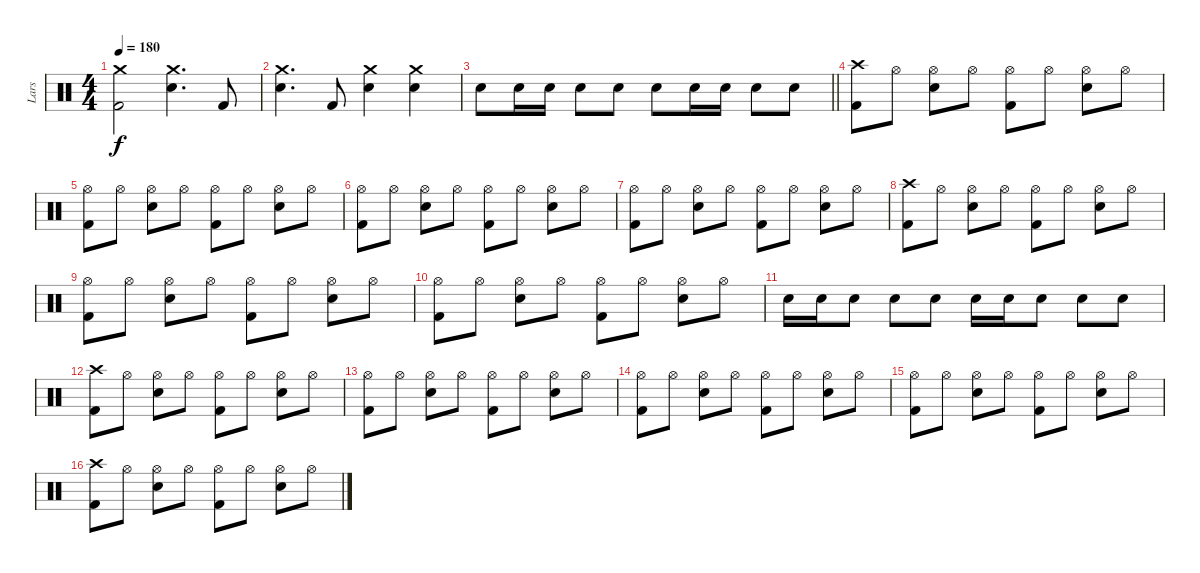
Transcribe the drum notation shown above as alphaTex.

\track ("Lars" "Lars") {instrument percussion}
\staff {score}
\articulation defaults
\ts (4 4)
\tempo 180
\clef neutral
\ks c
("Crash medium (hit)" "Kick (hit) 2").2{dy f} ("Crash medium (hit)" "Snare (hit) 2").4{d} "Kick (hit) 2".8 |
("Crash medium (hit)" "Snare (hit) 2").4{d} "Kick (hit) 2".8 ("Crash medium (hit)" "Snare (hit) 2").4 ("Crash medium (hit)" "Snare (hit) 2").4 |
\barLineRight lightlight "Snare (hit) 2".8 "Snare (hit) 2".16 "Snare (hit) 2".16 "Snare (hit) 2".8 "Snare (hit) 2".8 "Snare (hit) 2".8 "Snare (hit) 2".16 "Snare (hit) 2".16 "Snare (hit) 2".8 "Snare (hit) 2".8
|
\section ("" "")
("Crash high (hit)" "Kick (hit) 2").8 "Hi-Hat (open)".8 ("Hi-Hat (open)" "Snare (hit) 2").8 "Hi-Hat (open)".8 ("Hi-Hat (open)" "Kick (hit) 2").8 "Hi-Hat (open)".8 ("Hi-Hat (open)" "Snare (hit) 2").8 "Hi-Hat (open)".8 |
("Hi-Hat (open)" "Kick (hit) 2").8 "Hi-Hat (open)".8 ("Hi-Hat (open)" "Snare (hit) 2").8 "Hi-Hat (open)".8 ("Hi-Hat (open)" "Kick (hit) 2").8 "Hi-Hat (open)".8 ("Hi-Hat (open)" "Snare (hit) 2").8 "Hi-Hat (open)".8 |
("Hi-Hat (open)" "Kick (hit) 2").8 "Hi-Hat (open)".8 ("Hi-Hat (open)" "Snare (hit) 2").8 "Hi-Hat (open)".8 ("Hi-Hat (open)" "Kick (hit) 2").8 "Hi-Hat (open)".8 ("Hi-Hat (open)" "Snare (hit) 2").8 "Hi-Hat (open)".8 |
("Hi-Hat (open)" "Kick (hit) 2").8 "Hi-Hat (open)".8 ("Hi-Hat (open)" "Snare (hit) 2").8 "Hi-Hat (open)".8 ("Hi-Hat (open)" "Kick (hit) 2").8 "Hi-Hat (open)".8 ("Hi-Hat (open)" "Snare (hit) 2").8 "Hi-Hat (open)".8 |
("Crash high (hit)" "Kick (hit) 2").8 "Hi-Hat (open)".8 ("Hi-Hat (open)" "Snare (hit) 2").8 "Hi-Hat (open)".8 ("Hi-Hat (open)" "Kick (hit) 2").8 "Hi-Hat (open)".8 ("Hi-Hat (open)" "Snare (hit) 2").8 "Hi-Hat (open)".8 |
("Hi-Hat (open)" "Kick (hit) 2").8 "Hi-Hat (open)".8 ("Hi-Hat (open)" "Snare (hit) 2").8 "Hi-Hat (open)".8 ("Hi-Hat (open)" "Kick (hit) 2").8 "Hi-Hat (open)".8 ("Hi-Hat (open)" "Snare (hit) 2").8 "Hi-Hat (open)".8 |
("Hi-Hat (open)" "Kick (hit) 2").8 "Hi-Hat (open)".8 ("Hi-Hat (open)" "Snare (hit) 2").8 "Hi-Hat (open)".8 ("Hi-Hat (open)" "Kick (hit) 2").8 "Hi-Hat (open)".8 ("Hi-Hat (open)" "Snare (hit) 2").8 "Hi-Hat (open)".8 |
"Snare (hit) 2".16 "Snare (hit) 2".16 "Snare (hit) 2".8 "Snare (hit) 2".8 "Snare (hit) 2".8 "Snare (hit) 2".16 "Snare (hit) 2".16 "Snare (hit) 2".8 "Snare (hit) 2".8 "Snare (hit) 2".8 |
("Crash high (hit)" "Kick (hit) 2").8 "Hi-Hat (open)".8 ("Hi-Hat (open)" "Snare (hit) 2").8 "Hi-Hat (open)".8 ("Hi-Hat (open)" "Kick (hit) 2").8 "Hi-Hat (open)".8 ("Hi-Hat (open)" "Snare (hit) 2").8 "Hi-Hat (open)".8 |
("Hi-Hat (open)" "Kick (hit) 2").8 "Hi-Hat (open)".8 ("Hi-Hat (open)" "Snare (hit) 2").8 "Hi-Hat (open)".8 ("Hi-Hat (open)" "Kick (hit) 2").8 "Hi-Hat (open)".8 ("Hi-Hat (open)" "Snare (hit) 2").8 "Hi-Hat (open)".8 |
("Hi-Hat (open)" "Kick (hit) 2").8 "Hi-Hat (open)".8 ("Hi-Hat (open)" "Snare (hit) 2").8 "Hi-Hat (open)".8 ("Hi-Hat (open)" "Kick (hit) 2").8 "Hi-Hat (open)".8 ("Hi-Hat (open)" "Snare (hit) 2").8 "Hi-Hat (open)".8 |
("Hi-Hat (open)" "Kick (hit) 2").8 "Hi-Hat (open)".8 ("Hi-Hat (open)" "Snare (hit) 2").8 "Hi-Hat (open)".8 ("Hi-Hat (open)" "Kick (hit) 2").8 "Hi-Hat (open)".8 ("Hi-Hat (open)" "Snare (hit) 2").8 "Hi-Hat (open)".8 |
("Crash high (hit)" "Kick (hit) 2").8 "Hi-Hat (open)".8 ("Hi-Hat (open)" "Snare (hit) 2").8 "Hi-Hat (open)".8 ("Hi-Hat (open)" "Kick (hit) 2").8 "Hi-Hat (open)".8 ("Hi-Hat (open)" "Snare (hit) 2").8 "Hi-Hat (open)".8
